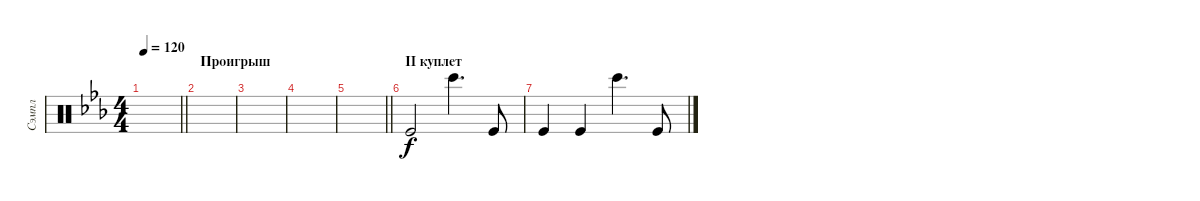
\track ("Сэмпл" "Сэмпл") {instrument percussion}
\staff {score}
\articulation defaults
\ts (4 4)
\tempo 120
\clef neutral
\barLineRight lightlight
\ks cminor
|
\section ("" "Проигрыш")
|
|
|
\barLineRight lightlight
|
\section ("" "II куплет")
"Kick (hit)".2 "Bongo High (hit)".4{d} "Kick (hit)".8 |
"Kick (hit)".4 "Kick (hit)".4 "Bongo High (hit)".4{d} "Kick (hit)".8
